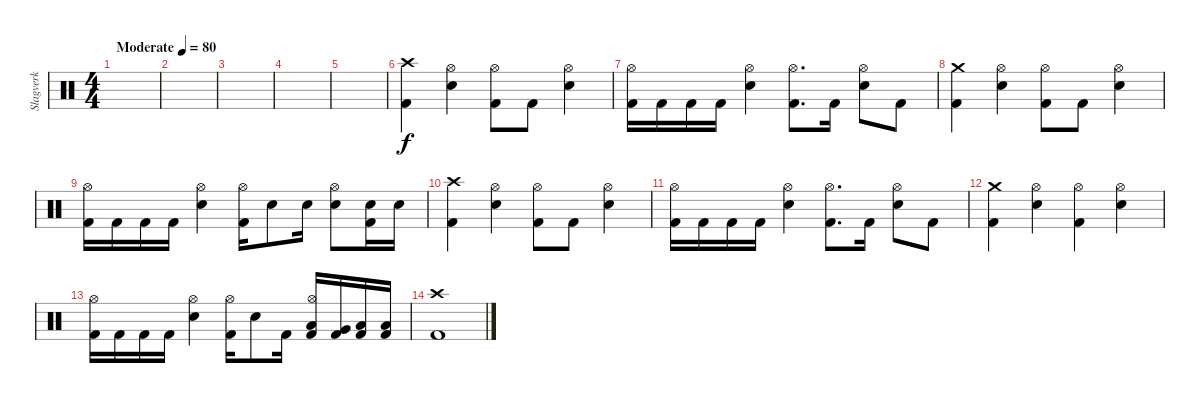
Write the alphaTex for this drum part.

\track ("Slagverk" "Slagverk") {instrument percussion}
\staff {score}
\articulation defaults
\ts (4 4)
\tempo (80 "Moderate")
\clef neutral
\ks c
|
|
|
|
|
("Crash high (hit)" "Kick (hit) 2").4 ("Hi-Hat (open)" "Snare (hit) 2").4 ("Hi-Hat (open)" "Kick (hit) 2").8 "Kick (hit) 2".8 ("Hi-Hat (open)" "Snare (hit) 2").4 |
("Hi-Hat (open)" "Kick (hit) 2").16 "Kick (hit) 2".16 "Kick (hit) 2".16 "Kick (hit) 2".16 ("Hi-Hat (open)" "Snare (hit) 2").4 ("Hi-Hat (open)" "Kick (hit) 2").8{d} "Kick (hit) 2".16 ("Hi-Hat (open)" "Snare (hit) 2").8 "Kick (hit) 2".8 |
("Crash medium (hit)" "Kick (hit) 2").4 ("Hi-Hat (open)" "Snare (hit) 2").4 ("Hi-Hat (open)" "Kick (hit) 2").8 "Kick (hit) 2".8 ("Hi-Hat (open)" "Snare (hit) 2").4 |
("Hi-Hat (open)" "Kick (hit) 2").16 "Kick (hit) 2".16 "Kick (hit) 2".16 "Kick (hit) 2".16 ("Hi-Hat (open)" "Snare (hit) 2").4 ("Hi-Hat (open)" "Kick (hit) 2").16 "Snare (hit) 2".8 "Snare (hit) 2".16 ("Hi-Hat (open)" "Snare (hit) 2").8 ("Snare (hit) 2" "Kick (hit) 2").16 "Snare (hit) 2".16 |
("Crash high (hit)" "Kick (hit) 2").4 ("Hi-Hat (open)" "Snare (hit) 2").4 ("Hi-Hat (open)" "Kick (hit) 2").8 "Kick (hit) 2".8 ("Hi-Hat (open)" "Snare (hit) 2").4 |
("Hi-Hat (open)" "Kick (hit) 2").16 "Kick (hit) 2".16 "Kick (hit) 2".16 "Kick (hit) 2".16 ("Hi-Hat (open)" "Snare (hit) 2").4 ("Hi-Hat (open)" "Kick (hit) 2").8{d} "Kick (hit) 2".16 ("Hi-Hat (open)" "Snare (hit) 2").8 "Kick (hit) 2".8 |
("Crash medium (hit)" "Kick (hit) 2").4 ("Hi-Hat (open)" "Snare (hit) 2").4 ("Hi-Hat (open)" "Kick (hit) 2").4 ("Hi-Hat (open)" "Snare (hit) 2").4 |
("Hi-Hat (open)" "Kick (hit) 2").16 "Kick (hit) 2".16 "Kick (hit) 2".16 "Kick (hit) 2".16 ("Hi-Hat (open)" "Snare (hit) 2").4 ("Hi-Hat (open)" "Kick (hit) 2").16 "Snare (hit) 2".8 "Kick (hit) 2".16 ("Hi-Hat (open)" "Low Tom (hit)" "Kick (hit) 2").16 ("Very Low Tom (hit)" "Kick (hit) 2").16 ("Low Floor Tom (hit)" "Kick (hit) 2").16 ("Low Floor Tom (hit)" "Kick (hit) 2").16 |
("Crash high (hit)" "Kick (hit) 2").1
